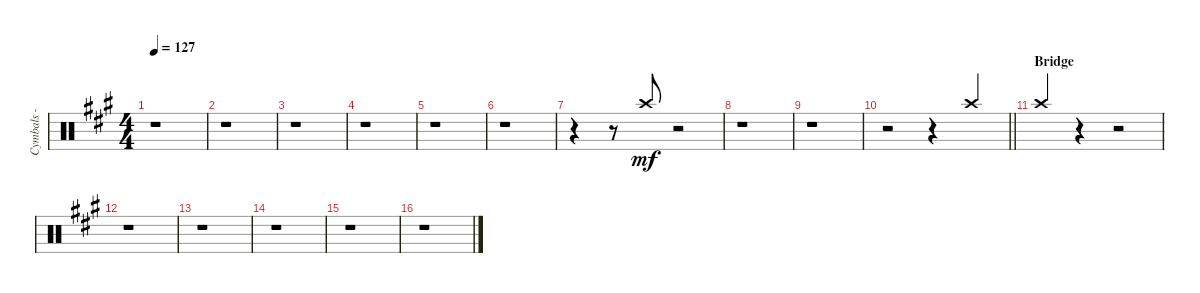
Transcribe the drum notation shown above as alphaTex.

\track ("Cymbals - crash" "Cymbals - ") {instrument percussion}
\staff {score}
\articulation defaults
\ts (4 4)
\tempo 127
\clef neutral
\ks a
r.1{dy mf} |
r.1 |
r.1 |
r.1 |
r.1 |
r.1 |
r.4 r.8 "Crash high (hit)".8{beam Up} r.2 |
r.1 |
r.1 |
\barLineRight lightlight
r.2 r.4 "Crash high (hit)".4{beam Up} |
\section ("" "Bridge")
"Crash high (hit)".4{beam Up} r.4 r.2 |
r.1 |
r.1 |
r.1 |
r.1 |
r.1
